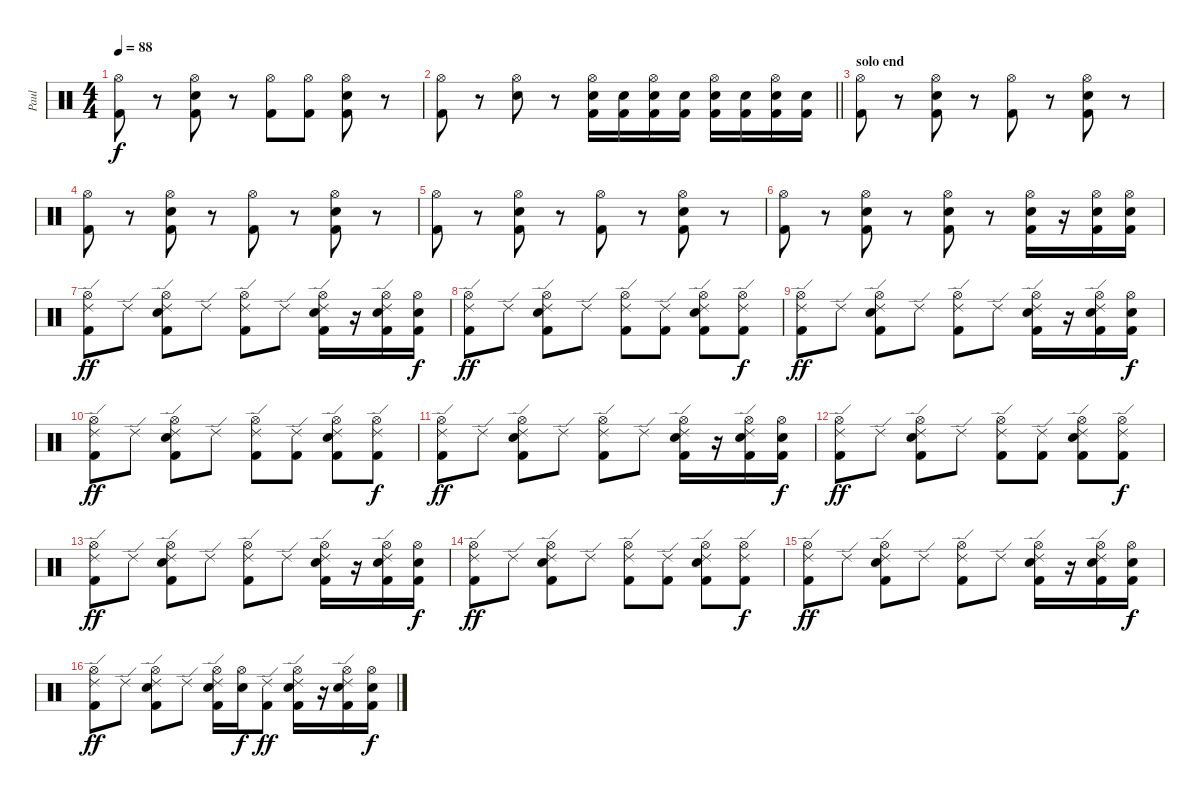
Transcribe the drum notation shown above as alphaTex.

\track ("Paul" "Paul") {instrument percussion}
\staff {score}
\articulation defaults
\ts (4 4)
\tempo 88
\clef neutral
\ks c
("Hi-Hat (open)" "Kick (hit) 2").8{dy f} r.8 ("Snare (hit) 2" "Hi-Hat (open)" "Kick (hit) 2").8 r.8 ("Hi-Hat (open)" "Kick (hit) 2").8 ("Hi-Hat (open)" "Kick (hit) 2").8 ("Snare (hit) 2" "Hi-Hat (open)" "Kick (hit) 2").8 r.8 |
\barLineRight lightlight
("Hi-Hat (open)" "Kick (hit) 2").8 r.8 ("Snare (hit) 2" "Hi-Hat (open)").8 r.8 ("Snare (hit) 2" "Hi-Hat (open)" "Kick (hit) 2").16 ("Snare (hit) 2" "Kick (hit) 2").16 ("Snare (hit) 2" "Hi-Hat (open)" "Kick (hit) 2").16 ("Snare (hit) 2" "Kick (hit) 2").16 ("Snare (hit) 2" "Hi-Hat (open)" "Kick (hit) 2").16 ("Snare (hit) 2" "Kick (hit) 2").16 ("Snare (hit) 2" "Hi-Hat (open)" "Kick (hit) 2").16 ("Snare (hit) 2" "Kick (hit) 2").16 |
\section ("" "solo end")
("Hi-Hat (open)" "Kick (hit) 2").8 r.8 ("Snare (hit) 2" "Hi-Hat (open)" "Kick (hit) 2").8 r.8 ("Hi-Hat (open)" "Kick (hit) 2").8 r.8 ("Snare (hit) 2" "Hi-Hat (open)" "Kick (hit) 2").8 r.8 |
("Hi-Hat (open)" "Kick (hit) 2").8 r.8 ("Snare (hit) 2" "Hi-Hat (open)" "Kick (hit) 2").8 r.8 ("Hi-Hat (open)" "Kick (hit) 2").8 r.8 ("Snare (hit) 2" "Hi-Hat (open)" "Kick (hit) 2").8 r.8 |
("Hi-Hat (open)" "Kick (hit) 2").8 r.8 ("Snare (hit) 2" "Hi-Hat (open)" "Kick (hit) 2").8 r.8 ("Hi-Hat (open)" "Kick (hit) 2").8 r.8 ("Snare (hit) 2" "Hi-Hat (open)" "Kick (hit) 2").8 r.8 |
("Hi-Hat (open)" "Kick (hit) 2").8 r.8 ("Snare (hit) 2" "Hi-Hat (open)" "Kick (hit) 2").8 r.8 ("Snare (hit) 2" "Hi-Hat (open)" "Kick (hit) 2").8 r.8 ("Snare (hit) 2" "Hi-Hat (open)" "Kick (hit) 2").16 r.16 ("Snare (hit) 2" "Hi-Hat (open)" "Kick (hit) 2").16 ("Snare (hit) 2" "Hi-Hat (open)" "Kick (hit) 2").16 |
("Hi-Hat (open)" "Ride (edge) 2" "Kick (hit) 2").8{dy ff} "Ride (edge) 2".8 ("Snare (hit) 2" "Hi-Hat (open)" "Ride (edge) 2" "Kick (hit) 2").8 "Ride (edge) 2".8 ("Hi-Hat (open)" "Ride (edge) 2" "Kick (hit) 2").8 "Ride (edge) 2".8 ("Snare (hit) 2" "Hi-Hat (open)" "Ride (edge) 2" "Kick (hit) 2").16 r.16 ("Snare (hit) 2" "Hi-Hat (open)" "Ride (edge) 2" "Kick (hit) 2").16 ("Snare (hit) 2" "Hi-Hat (open)" "Kick (hit) 2").16{dy f} |
("Hi-Hat (open)" "Ride (edge) 2" "Kick (hit) 2").8{dy ff} "Ride (edge) 2".8 ("Snare (hit) 2" "Hi-Hat (open)" "Ride (edge) 2" "Kick (hit) 2").8 "Ride (edge) 2".8 ("Hi-Hat (open)" "Ride (edge) 2" "Kick (hit) 2").8 ("Ride (edge) 2" "Kick (hit) 2").8 ("Snare (hit) 2" "Hi-Hat (open)" "Ride (edge) 2" "Kick (hit) 2").8 ("Hi-Hat (open)" "Ride (edge) 2" "Kick (hit) 2").8{dy f} |
("Hi-Hat (open)" "Ride (edge) 2" "Kick (hit) 2").8{dy ff} "Ride (edge) 2".8 ("Snare (hit) 2" "Hi-Hat (open)" "Ride (edge) 2" "Kick (hit) 2").8 "Ride (edge) 2".8 ("Hi-Hat (open)" "Ride (edge) 2" "Kick (hit) 2").8 "Ride (edge) 2".8 ("Snare (hit) 2" "Hi-Hat (open)" "Ride (edge) 2" "Kick (hit) 2").16 r.16 ("Snare (hit) 2" "Hi-Hat (open)" "Ride (edge) 2" "Kick (hit) 2").16 ("Snare (hit) 2" "Hi-Hat (open)" "Kick (hit) 2").16{dy f} |
("Hi-Hat (open)" "Ride (edge) 2" "Kick (hit) 2").8{dy ff} "Ride (edge) 2".8 ("Snare (hit) 2" "Hi-Hat (open)" "Ride (edge) 2" "Kick (hit) 2").8 "Ride (edge) 2".8 ("Hi-Hat (open)" "Ride (edge) 2" "Kick (hit) 2").8 ("Ride (edge) 2" "Kick (hit) 2").8 ("Snare (hit) 2" "Hi-Hat (open)" "Ride (edge) 2" "Kick (hit) 2").8 ("Hi-Hat (open)" "Ride (edge) 2" "Kick (hit) 2").8{dy f} |
("Hi-Hat (open)" "Ride (edge) 2" "Kick (hit) 2").8{dy ff} "Ride (edge) 2".8 ("Snare (hit) 2" "Hi-Hat (open)" "Ride (edge) 2" "Kick (hit) 2").8 "Ride (edge) 2".8 ("Hi-Hat (open)" "Ride (edge) 2" "Kick (hit) 2").8 "Ride (edge) 2".8 ("Snare (hit) 2" "Hi-Hat (open)" "Ride (edge) 2" "Kick (hit) 2").16 r.16 ("Snare (hit) 2" "Hi-Hat (open)" "Ride (edge) 2" "Kick (hit) 2").16 ("Snare (hit) 2" "Hi-Hat (open)" "Kick (hit) 2").16{dy f} |
("Hi-Hat (open)" "Ride (edge) 2" "Kick (hit) 2").8{dy ff} "Ride (edge) 2".8 ("Snare (hit) 2" "Hi-Hat (open)" "Ride (edge) 2" "Kick (hit) 2").8 "Ride (edge) 2".8 ("Hi-Hat (open)" "Ride (edge) 2" "Kick (hit) 2").8 ("Ride (edge) 2" "Kick (hit) 2").8 ("Snare (hit) 2" "Hi-Hat (open)" "Ride (edge) 2" "Kick (hit) 2").8 ("Hi-Hat (open)" "Ride (edge) 2" "Kick (hit) 2").8{dy f} |
("Hi-Hat (open)" "Ride (edge) 2" "Kick (hit) 2").8{dy ff} "Ride (edge) 2".8 ("Snare (hit) 2" "Hi-Hat (open)" "Ride (edge) 2" "Kick (hit) 2").8 "Ride (edge) 2".8 ("Hi-Hat (open)" "Ride (edge) 2" "Kick (hit) 2").8 "Ride (edge) 2".8 ("Snare (hit) 2" "Hi-Hat (open)" "Ride (edge) 2" "Kick (hit) 2").16 r.16 ("Snare (hit) 2" "Hi-Hat (open)" "Ride (edge) 2" "Kick (hit) 2").16 ("Snare (hit) 2" "Hi-Hat (open)" "Kick (hit) 2").16{dy f} |
("Hi-Hat (open)" "Ride (edge) 2" "Kick (hit) 2").8{dy ff} "Ride (edge) 2".8 ("Snare (hit) 2" "Hi-Hat (open)" "Ride (edge) 2" "Kick (hit) 2").8 "Ride (edge) 2".8 ("Hi-Hat (open)" "Ride (edge) 2" "Kick (hit) 2").8 ("Ride (edge) 2" "Kick (hit) 2").8 ("Snare (hit) 2" "Hi-Hat (open)" "Ride (edge) 2" "Kick (hit) 2").8 ("Hi-Hat (open)" "Ride (edge) 2" "Kick (hit) 2").8{dy f} |
("Hi-Hat (open)" "Ride (edge) 2" "Kick (hit) 2").8{dy ff} "Ride (edge) 2".8 ("Snare (hit) 2" "Hi-Hat (open)" "Ride (edge) 2" "Kick (hit) 2").8 "Ride (edge) 2".8 ("Hi-Hat (open)" "Ride (edge) 2" "Kick (hit) 2").8 "Ride (edge) 2".8 ("Snare (hit) 2" "Hi-Hat (open)" "Ride (edge) 2" "Kick (hit) 2").16 r.16 ("Snare (hit) 2" "Hi-Hat (open)" "Ride (edge) 2" "Kick (hit) 2").16 ("Snare (hit) 2" "Hi-Hat (open)" "Kick (hit) 2").16{dy f} |
("Hi-Hat (open)" "Ride (edge) 2" "Kick (hit) 2").8{dy ff} "Ride (edge) 2".8 ("Snare (hit) 2" "Hi-Hat (open)" "Ride (edge) 2" "Kick (hit) 2").8 "Ride (edge) 2".8 ("Snare (hit) 2" "Hi-Hat (open)" "Ride (edge) 2" "Kick (hit) 2").16 ("Snare (hit) 2" "Hi-Hat (open)").16{dy f} ("Ride (edge) 2" "Kick (hit) 2").8{dy ff} ("Snare (hit) 2" "Hi-Hat (open)" "Ride (edge) 2" "Kick (hit) 2").16 r.16 ("Snare (hit) 2" "Hi-Hat (open)" "Ride (edge) 2" "Kick (hit) 2").16 ("Snare (hit) 2" "Hi-Hat (open)" "Kick (hit) 2").16{dy f}
